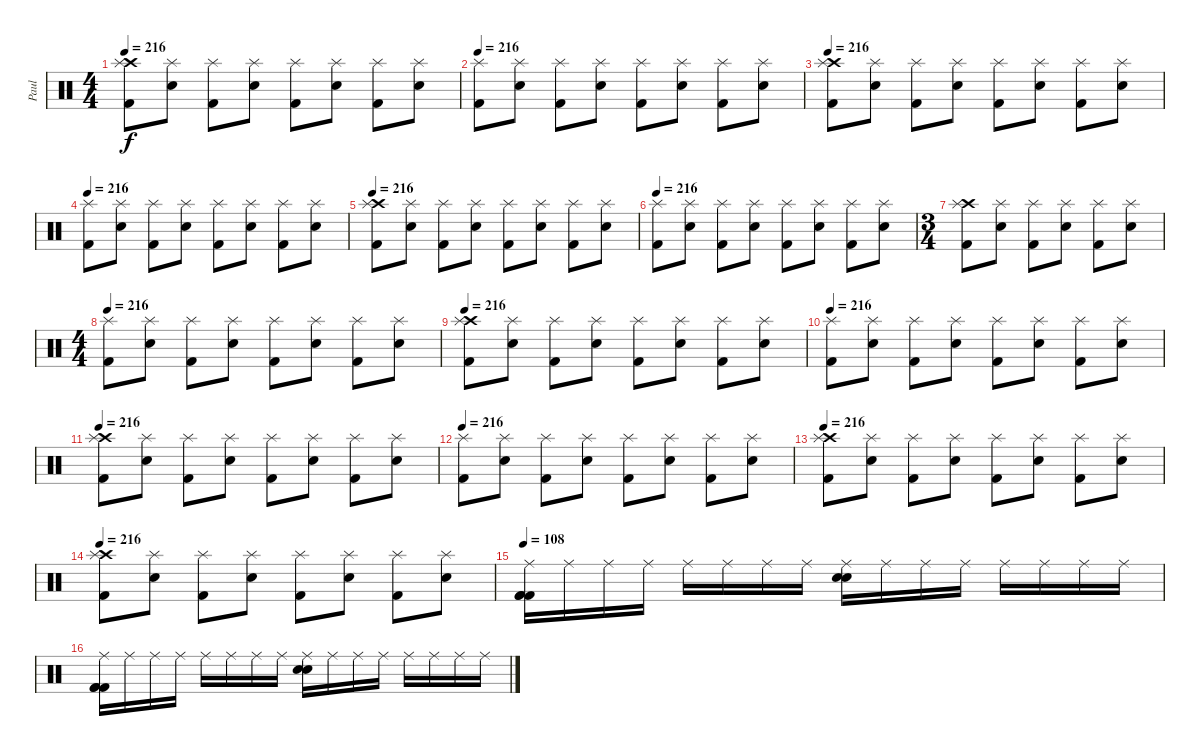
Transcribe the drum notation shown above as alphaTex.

\track ("Paul" "Paul") {instrument percussion}
\staff {score}
\articulation defaults
\ts (4 4)
\tempo 216
\clef neutral
\ks c
("Crash high (hit)" "Splash (hit)" "Kick (hit) 2").8{dy f} ("Splash (hit)" "Electric Snare (hit)").8 ("Splash (hit)" "Kick (hit) 2").8 ("Splash (hit)" "Electric Snare (hit)").8 ("Splash (hit)" "Kick (hit) 2").8 ("Splash (hit)" "Electric Snare (hit)").8 ("Splash (hit)" "Kick (hit) 2").8 ("Splash (hit)" "Electric Snare (hit)").8 |
\tempo 216
("Splash (hit)" "Kick (hit) 2").8 ("Splash (hit)" "Electric Snare (hit)").8 ("Splash (hit)" "Kick (hit) 2").8 ("Splash (hit)" "Electric Snare (hit)").8 ("Splash (hit)" "Kick (hit) 2").8 ("Splash (hit)" "Electric Snare (hit)").8 ("Splash (hit)" "Kick (hit) 2").8 ("Splash (hit)" "Electric Snare (hit)").8 |
\tempo 216
("Crash high (hit)" "Splash (hit)" "Kick (hit) 2").8 ("Splash (hit)" "Electric Snare (hit)").8 ("Splash (hit)" "Kick (hit) 2").8 ("Splash (hit)" "Electric Snare (hit)").8 ("Splash (hit)" "Kick (hit) 2").8 ("Splash (hit)" "Electric Snare (hit)").8 ("Splash (hit)" "Kick (hit) 2").8 ("Splash (hit)" "Electric Snare (hit)").8 |
\tempo 216
("Splash (hit)" "Kick (hit) 2").8 ("Splash (hit)" "Electric Snare (hit)").8 ("Splash (hit)" "Kick (hit) 2").8 ("Splash (hit)" "Electric Snare (hit)").8 ("Splash (hit)" "Kick (hit) 2").8 ("Splash (hit)" "Electric Snare (hit)").8 ("Splash (hit)" "Kick (hit) 2").8 ("Splash (hit)" "Electric Snare (hit)").8 |
\tempo 216
("Crash high (hit)" "Splash (hit)" "Kick (hit) 2").8 ("Splash (hit)" "Electric Snare (hit)").8 ("Splash (hit)" "Kick (hit) 2").8 ("Splash (hit)" "Electric Snare (hit)").8 ("Splash (hit)" "Kick (hit) 2").8 ("Splash (hit)" "Electric Snare (hit)").8 ("Splash (hit)" "Kick (hit) 2").8 ("Splash (hit)" "Electric Snare (hit)").8 |
\tempo 216
("Splash (hit)" "Kick (hit) 2").8 ("Splash (hit)" "Electric Snare (hit)").8 ("Splash (hit)" "Kick (hit) 2").8 ("Splash (hit)" "Electric Snare (hit)").8 ("Splash (hit)" "Kick (hit) 2").8 ("Splash (hit)" "Electric Snare (hit)").8 ("Splash (hit)" "Kick (hit) 2").8 ("Splash (hit)" "Electric Snare (hit)").8 |
\ts (3 4)
("Crash high (hit)" "Splash (hit)" "Kick (hit) 2").8 ("Splash (hit)" "Electric Snare (hit)").8 ("Splash (hit)" "Kick (hit) 2").8 ("Splash (hit)" "Electric Snare (hit)").8 ("Splash (hit)" "Kick (hit) 2").8 ("Splash (hit)" "Electric Snare (hit)").8 |
\ts (4 4)
\tempo 216
("Splash (hit)" "Kick (hit) 2").8 ("Splash (hit)" "Electric Snare (hit)").8 ("Splash (hit)" "Kick (hit) 2").8 ("Splash (hit)" "Electric Snare (hit)").8 ("Splash (hit)" "Kick (hit) 2").8 ("Splash (hit)" "Electric Snare (hit)").8 ("Splash (hit)" "Kick (hit) 2").8 ("Splash (hit)" "Electric Snare (hit)").8 |
\tempo 216
("Crash high (hit)" "Splash (hit)" "Kick (hit) 2").8 ("Splash (hit)" "Electric Snare (hit)").8 ("Splash (hit)" "Kick (hit) 2").8 ("Splash (hit)" "Electric Snare (hit)").8 ("Splash (hit)" "Kick (hit) 2").8 ("Splash (hit)" "Electric Snare (hit)").8 ("Splash (hit)" "Kick (hit) 2").8 ("Splash (hit)" "Electric Snare (hit)").8 |
\tempo 216
("Splash (hit)" "Kick (hit) 2").8 ("Splash (hit)" "Electric Snare (hit)").8 ("Splash (hit)" "Kick (hit) 2").8 ("Splash (hit)" "Electric Snare (hit)").8 ("Splash (hit)" "Kick (hit) 2").8 ("Splash (hit)" "Electric Snare (hit)").8 ("Splash (hit)" "Kick (hit) 2").8 ("Splash (hit)" "Electric Snare (hit)").8 |
\tempo 216
("Crash high (hit)" "Splash (hit)" "Kick (hit) 2").8 ("Splash (hit)" "Electric Snare (hit)").8 ("Splash (hit)" "Kick (hit) 2").8 ("Splash (hit)" "Electric Snare (hit)").8 ("Splash (hit)" "Kick (hit) 2").8 ("Splash (hit)" "Electric Snare (hit)").8 ("Splash (hit)" "Kick (hit) 2").8 ("Splash (hit)" "Electric Snare (hit)").8 |
\tempo 216
("Splash (hit)" "Kick (hit) 2").8 ("Splash (hit)" "Electric Snare (hit)").8 ("Splash (hit)" "Kick (hit) 2").8 ("Splash (hit)" "Electric Snare (hit)").8 ("Splash (hit)" "Kick (hit) 2").8 ("Splash (hit)" "Electric Snare (hit)").8 ("Splash (hit)" "Kick (hit) 2").8 ("Splash (hit)" "Electric Snare (hit)").8 |
\tempo 216
("Crash high (hit)" "Splash (hit)" "Kick (hit) 2").8 ("Splash (hit)" "Electric Snare (hit)").8 ("Splash (hit)" "Kick (hit) 2").8 ("Splash (hit)" "Electric Snare (hit)").8 ("Splash (hit)" "Kick (hit) 2").8 ("Splash (hit)" "Electric Snare (hit)").8 ("Splash (hit)" "Kick (hit) 2").8 ("Splash (hit)" "Electric Snare (hit)").8 |
\tempo 216
("Crash high (hit)" "Splash (hit)" "Kick (hit) 2").8 ("Splash (hit)" "Electric Snare (hit)").8 ("Splash (hit)" "Kick (hit) 2").8 ("Splash (hit)" "Electric Snare (hit)").8 ("Splash (hit)" "Kick (hit) 2").8 ("Splash (hit)" "Electric Snare (hit)").8 ("Splash (hit)" "Kick (hit) 2").8 ("Splash (hit)" "Electric Snare (hit)").8 |
\tempo 108
("Kick (hit) 2" "Ride (middle)" "Kick (hit) 2" "Kick (hit) 2").16 "Ride (middle)".16 "Ride (middle)".16 "Ride (middle)".16 "Ride (middle)".16 "Ride (middle)".16 "Ride (middle)".16 "Ride (middle)".16 ("Electric Snare (hit)" "Ride (middle)" "Electric Snare (hit)").16 "Ride (middle)".16 "Ride (middle)".16 "Ride (middle)".16 "Ride (middle)".16 "Ride (middle)".16 "Ride (middle)".16 "Ride (middle)".16 |
("Kick (hit) 2" "Ride (middle)" "Kick (hit) 2" "Kick (hit) 2").16 "Ride (middle)".16 "Ride (middle)".16 "Ride (middle)".16 "Ride (middle)".16 "Ride (middle)".16 "Ride (middle)".16 "Ride (middle)".16 ("Electric Snare (hit)" "Ride (middle)" "Electric Snare (hit)").16 "Ride (middle)".16 "Ride (middle)".16 "Ride (middle)".16 "Ride (middle)".16 "Ride (middle)".16 "Ride (middle)".16 "Ride (middle)".16
